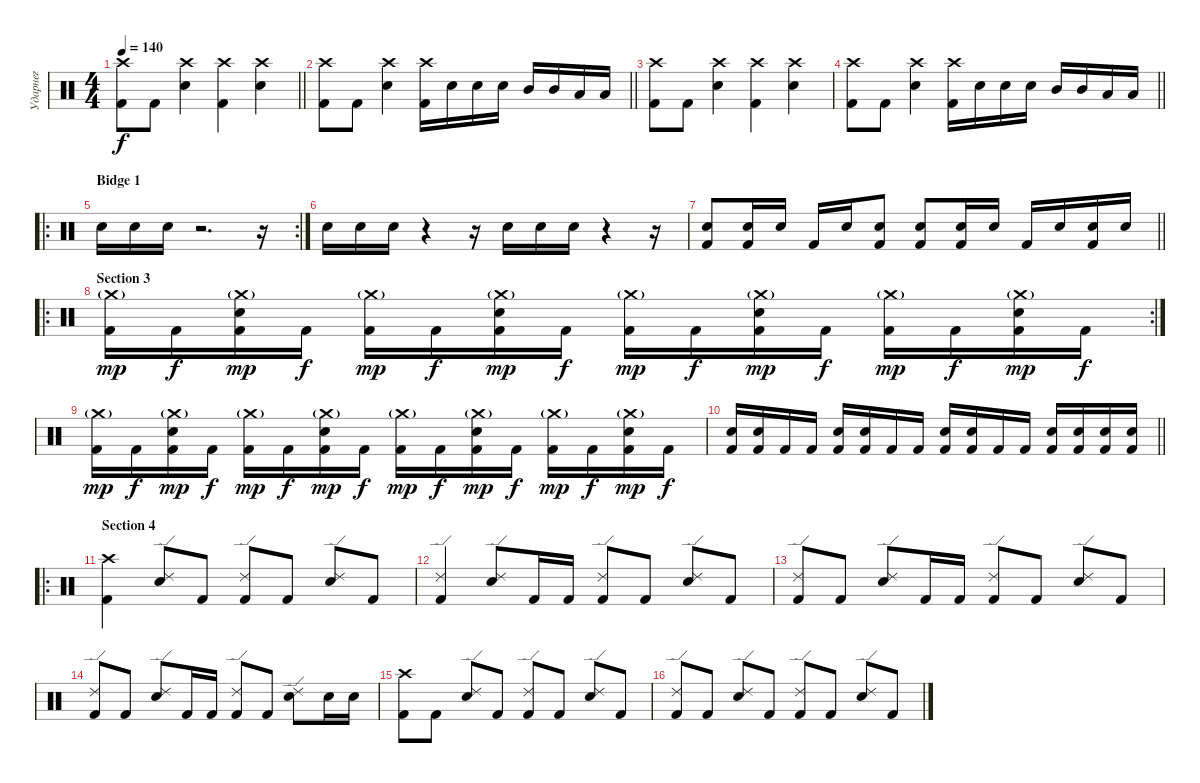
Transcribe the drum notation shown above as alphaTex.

\track ("Ударнег" "Ударнег") {instrument percussion}
\staff {score}
\articulation defaults
\ts (4 4)
\tempo 140
\clef neutral
\barLineRight lightlight
\ks c
("Crash high (hit)" "Kick (hit) 2").8{dy f} "Kick (hit) 2".8 ("Crash high (hit)" "Snare (hit) 2").4 ("Crash high (hit)" "Kick (hit) 2").4 ("Crash high (hit)" "Snare (hit) 2").4 |
\barLineRight lightlight
("Crash high (hit)" "Kick (hit) 2").8 "Kick (hit) 2".8 ("Crash high (hit)" "Snare (hit) 2").4 ("Crash high (hit)" "Kick (hit) 2").16 "Snare (hit) 2".16 "Snare (hit) 2".16 "Snare (hit) 2".16 "Mid Tom (hit)".16 "Mid Tom (hit)".16 "Low Tom (hit)".16 "Low Tom (hit)".16 |
("Crash high (hit)" "Kick (hit) 2").8 "Kick (hit) 2".8 ("Crash high (hit)" "Snare (hit) 2").4 ("Crash high (hit)" "Kick (hit) 2").4 ("Crash high (hit)" "Snare (hit) 2").4 |
\barLineRight lightlight
("Crash high (hit)" "Kick (hit) 2").8 "Kick (hit) 2".8 ("Crash high (hit)" "Snare (hit) 2").4 ("Crash high (hit)" "Kick (hit) 2").16 "Snare (hit) 2".16 "Snare (hit) 2".16 "Snare (hit) 2".16 "Mid Tom (hit)".16 "Mid Tom (hit)".16 "Low Tom (hit)".16 "Low Tom (hit)".16 |
\ro
\rc 2
\section ("" "Bidge 1")
"Snare (hit) 2".16 "Snare (hit) 2".16 "Snare (hit) 2".16 r.2{d} r.16 |
"Snare (hit) 2".16 "Snare (hit) 2".16 "Snare (hit) 2".16 r.4 r.16 "Snare (hit) 2".16 "Snare (hit) 2".16 "Snare (hit) 2".16 r.4 r.16 |
\barLineRight lightlight
("Snare (hit) 2" "Kick (hit) 2").8 ("Snare (hit) 2" "Kick (hit) 2").16 "Snare (hit) 2".16 "Kick (hit) 2".16 "Snare (hit) 2".16 ("Snare (hit) 2" "Kick (hit) 2").8 ("Snare (hit) 2" "Kick (hit) 2").8 ("Snare (hit) 2" "Kick (hit) 2").16 "Snare (hit) 2".16 "Kick (hit) 2".16 "Snare (hit) 2".16 ("Snare (hit) 2" "Kick (hit) 2").16 "Snare (hit) 2".16 |
\ro
\rc 2
\section ("" "Section 3")
("Crash medium (hit)"{g} "Kick (hit) 2").16{dy mp} "Kick (hit) 2".16{dy f} ("Crash medium (hit)"{g} "Snare (hit) 2" "Kick (hit) 2").16{dy mp} "Kick (hit) 2".16{dy f} ("Crash medium (hit)"{g} "Kick (hit) 2").16{dy mp} "Kick (hit) 2".16{dy f} ("Crash medium (hit)"{g} "Snare (hit) 2" "Kick (hit) 2").16{dy mp} "Kick (hit) 2".16{dy f} ("Crash medium (hit)"{g} "Kick (hit) 2").16{dy mp} "Kick (hit) 2".16{dy f} ("Crash medium (hit)"{g} "Snare (hit) 2" "Kick (hit) 2").16{dy mp} "Kick (hit) 2".16{dy f} ("Crash medium (hit)"{g} "Kick (hit) 2").16{dy mp} "Kick (hit) 2".16{dy f} ("Crash medium (hit)"{g} "Snare (hit) 2" "Kick (hit) 2").16{dy mp} "Kick (hit) 2".16{dy f} |
("Crash medium (hit)"{g} "Kick (hit) 2").16{dy mp} "Kick (hit) 2".16{dy f} ("Crash medium (hit)"{g} "Snare (hit) 2" "Kick (hit) 2").16{dy mp} "Kick (hit) 2".16{dy f} ("Crash medium (hit)"{g} "Kick (hit) 2").16{dy mp} "Kick (hit) 2".16{dy f} ("Crash medium (hit)"{g} "Snare (hit) 2" "Kick (hit) 2").16{dy mp} "Kick (hit) 2".16{dy f} ("Crash medium (hit)"{g} "Kick (hit) 2").16{dy mp} "Kick (hit) 2".16{dy f} ("Crash medium (hit)"{g} "Snare (hit) 2" "Kick (hit) 2").16{dy mp} "Kick (hit) 2".16{dy f} ("Crash medium (hit)"{g} "Kick (hit) 2").16{dy mp} "Kick (hit) 2".16{dy f} ("Crash medium (hit)"{g} "Snare (hit) 2" "Kick (hit) 2").16{dy mp} "Kick (hit) 2".16{dy f} |
\barLineRight lightlight
("Snare (hit) 2" "Kick (hit) 2").16 ("Snare (hit) 2" "Kick (hit) 2").16 "Kick (hit) 2".16 "Kick (hit) 2".16 ("Snare (hit) 2" "Kick (hit) 2").16 ("Snare (hit) 2" "Kick (hit) 2").16 "Kick (hit) 2".16 "Kick (hit) 2".16 ("Snare (hit) 2" "Kick (hit) 2").16 ("Snare (hit) 2" "Kick (hit) 2").16 "Kick (hit) 2".16 "Kick (hit) 2".16 ("Snare (hit) 2" "Kick (hit) 2").16 ("Snare (hit) 2" "Kick (hit) 2").16 ("Snare (hit) 2" "Kick (hit) 2").16 ("Snare (hit) 2" "Kick (hit) 2").16 |
\ro
\section ("" "Section 4")
("Crash high (hit)" "Kick (hit) 2").4 ("Ride (edge) 2" "Snare (hit) 2").8 "Kick (hit) 2".8 ("Ride (edge) 2" "Kick (hit) 2").8 "Kick (hit) 2".8 ("Ride (edge) 2" "Snare (hit) 2").8 "Kick (hit) 2".8 |
("Ride (edge) 2" "Kick (hit) 2").4 ("Ride (edge) 2" "Snare (hit) 2").8 "Kick (hit) 2".16 "Kick (hit) 2".16 ("Ride (edge) 2" "Kick (hit) 2").8 "Kick (hit) 2".8 ("Ride (edge) 2" "Snare (hit) 2").8 "Kick (hit) 2".8 |
("Ride (edge) 2" "Kick (hit) 2").8 "Kick (hit) 2".8 ("Ride (edge) 2" "Snare (hit) 2").8 "Kick (hit) 2".16 "Kick (hit) 2".16 ("Ride (edge) 2" "Kick (hit) 2").8 "Kick (hit) 2".8 ("Ride (edge) 2" "Snare (hit) 2").8 "Kick (hit) 2".8 |
("Ride (edge) 2" "Kick (hit) 2").8 "Kick (hit) 2".8 ("Ride (edge) 2" "Snare (hit) 2").8 "Kick (hit) 2".16 "Kick (hit) 2".16 ("Ride (edge) 2" "Kick (hit) 2").8 "Kick (hit) 2".8 ("Ride (edge) 2" "Snare (hit) 2").8 "Snare (hit) 2".16 "Snare (hit) 2".16 |
("Crash high (hit)" "Kick (hit) 2").8 "Kick (hit) 2".8 ("Ride (edge) 2" "Snare (hit) 2").8 "Kick (hit) 2".8 ("Ride (edge) 2" "Kick (hit) 2").8 "Kick (hit) 2".8 ("Ride (edge) 2" "Snare (hit) 2").8 "Kick (hit) 2".8 |
("Ride (edge) 2" "Kick (hit) 2").8 "Kick (hit) 2".8 ("Ride (edge) 2" "Snare (hit) 2").8 "Kick (hit) 2".8 ("Ride (edge) 2" "Kick (hit) 2").8 "Kick (hit) 2".8 ("Ride (edge) 2" "Snare (hit) 2").8 "Kick (hit) 2".8
